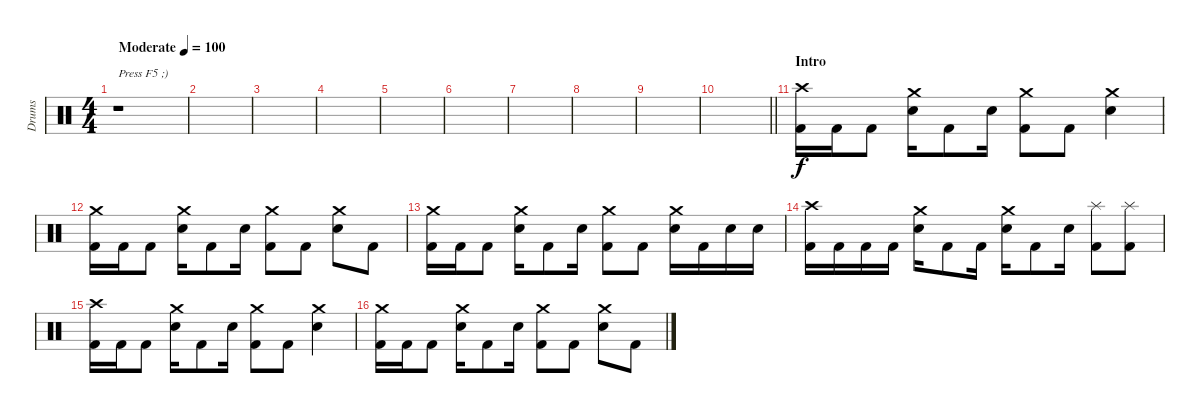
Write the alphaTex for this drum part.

\track ("Drums" "Drums") {instrument percussion}
\staff {score}
\articulation defaults
\ts (4 4)
\tempo (100 "Moderate")
\clef neutral
\ks c
r.1{txt "Press F5 ;)" dy f} |
|
|
|
|
|
|
|
|
\barLineRight lightlight
|
\section ("" "Intro")
("Crash high (hit)" "Kick (hit) 2").16 "Kick (hit) 2".16 "Kick (hit) 2".8 ("Crash medium (hit)" "Electric Snare (hit)").16 "Kick (hit) 2".8 "Electric Snare (hit)".16 ("Crash medium (hit)" "Kick (hit) 2").8 "Kick (hit) 2".8 ("Crash medium (hit)" "Electric Snare (hit)").4 |
("Crash medium (hit)" "Kick (hit) 2").16 "Kick (hit) 2".16 "Kick (hit) 2".8 ("Crash medium (hit)" "Electric Snare (hit)").16 "Kick (hit) 2".8 "Electric Snare (hit)".16 ("Crash medium (hit)" "Kick (hit) 2").8 "Kick (hit) 2".8 ("Crash medium (hit)" "Electric Snare (hit)").8 "Kick (hit) 2".8 |
("Crash medium (hit)" "Kick (hit) 2").16 "Kick (hit) 2".16 "Kick (hit) 2".8 ("Crash medium (hit)" "Electric Snare (hit)").16 "Kick (hit) 2".8 "Electric Snare (hit)".16 ("Crash medium (hit)" "Kick (hit) 2").8 "Kick (hit) 2".8 ("Crash medium (hit)" "Electric Snare (hit)").16 "Kick (hit) 2".16 "Electric Snare (hit)".16 "Electric Snare (hit)".16 |
("Crash high (hit)" "Kick (hit) 2").16 "Kick (hit) 2".16 "Kick (hit) 2".16 "Kick (hit) 2".16 ("Crash medium (hit)" "Electric Snare (hit)").16 "Kick (hit) 2".8 "Kick (hit) 2".16 ("Crash medium (hit)" "Electric Snare (hit)").16 "Kick (hit) 2".8 "Electric Snare (hit)".16 ("Splash (hit)" "Kick (hit) 2").8 ("Splash (hit)" "Kick (hit) 2").8 |
("Crash high (hit)" "Kick (hit) 2").16 "Kick (hit) 2".16 "Kick (hit) 2".8 ("Crash medium (hit)" "Electric Snare (hit)").16 "Kick (hit) 2".8 "Electric Snare (hit)".16 ("Crash medium (hit)" "Kick (hit) 2").8 "Kick (hit) 2".8 ("Crash medium (hit)" "Electric Snare (hit)").4 |
("Crash medium (hit)" "Kick (hit) 2").16 "Kick (hit) 2".16 "Kick (hit) 2".8 ("Crash medium (hit)" "Electric Snare (hit)").16 "Kick (hit) 2".8 "Electric Snare (hit)".16 ("Crash medium (hit)" "Kick (hit) 2").8 "Kick (hit) 2".8 ("Crash medium (hit)" "Electric Snare (hit)").8 "Kick (hit) 2".8
